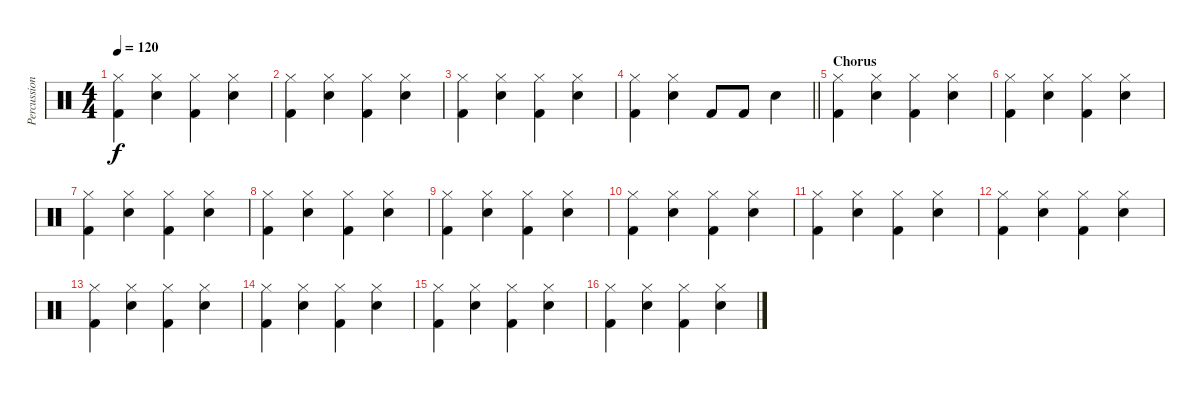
\track ("Percussion" "Percussion") {instrument percussion}
\staff {score}
\articulation defaults
\ts (4 4)
\tempo 120
\clef neutral
\ks c
("Hi-Hat (closed)" "Kick (hit) 2").4{dy f} ("Hi-Hat (closed)" "Electric Snare (hit)").4 ("Hi-Hat (closed)" "Kick (hit) 2").4 ("Hi-Hat (closed)" "Electric Snare (hit)").4 |
("Hi-Hat (closed)" "Kick (hit) 2").4 ("Hi-Hat (closed)" "Electric Snare (hit)").4 ("Hi-Hat (closed)" "Kick (hit) 2").4 ("Hi-Hat (closed)" "Electric Snare (hit)").4 |
("Hi-Hat (closed)" "Kick (hit) 2").4 ("Hi-Hat (closed)" "Electric Snare (hit)").4 ("Hi-Hat (closed)" "Kick (hit) 2").4 ("Hi-Hat (closed)" "Electric Snare (hit)").4 |
\barLineRight lightlight
("Hi-Hat (closed)" "Kick (hit) 2").4 ("Hi-Hat (closed)" "Electric Snare (hit)").4 "Kick (hit) 2".8 "Kick (hit) 2".8 "Electric Snare (hit)".4 |
\section ("" "Chorus")
("Hi-Hat (closed)" "Kick (hit) 2").4 ("Hi-Hat (closed)" "Electric Snare (hit)").4 ("Hi-Hat (closed)" "Kick (hit) 2").4 ("Hi-Hat (closed)" "Electric Snare (hit)").4 |
("Hi-Hat (closed)" "Kick (hit) 2").4 ("Hi-Hat (closed)" "Electric Snare (hit)").4 ("Hi-Hat (closed)" "Kick (hit) 2").4 ("Hi-Hat (closed)" "Electric Snare (hit)").4 |
("Hi-Hat (closed)" "Kick (hit) 2").4 ("Hi-Hat (closed)" "Electric Snare (hit)").4 ("Hi-Hat (closed)" "Kick (hit) 2").4 ("Hi-Hat (closed)" "Electric Snare (hit)").4 |
("Hi-Hat (closed)" "Kick (hit) 2").4 ("Hi-Hat (closed)" "Electric Snare (hit)").4 ("Hi-Hat (closed)" "Kick (hit) 2").4 ("Hi-Hat (closed)" "Electric Snare (hit)").4 |
("Hi-Hat (closed)" "Kick (hit) 2").4 ("Hi-Hat (closed)" "Electric Snare (hit)").4 ("Hi-Hat (closed)" "Kick (hit) 2").4 ("Hi-Hat (closed)" "Electric Snare (hit)").4 |
("Hi-Hat (closed)" "Kick (hit) 2").4 ("Hi-Hat (closed)" "Electric Snare (hit)").4 ("Hi-Hat (closed)" "Kick (hit) 2").4 ("Hi-Hat (closed)" "Electric Snare (hit)").4 |
("Hi-Hat (closed)" "Kick (hit) 2").4 ("Hi-Hat (closed)" "Electric Snare (hit)").4 ("Hi-Hat (closed)" "Kick (hit) 2").4 ("Hi-Hat (closed)" "Electric Snare (hit)").4 |
("Hi-Hat (closed)" "Kick (hit) 2").4 ("Hi-Hat (closed)" "Electric Snare (hit)").4 ("Hi-Hat (closed)" "Kick (hit) 2").4 ("Hi-Hat (closed)" "Electric Snare (hit)").4 |
("Hi-Hat (closed)" "Kick (hit) 2").4 ("Hi-Hat (closed)" "Electric Snare (hit)").4 ("Hi-Hat (closed)" "Kick (hit) 2").4 ("Hi-Hat (closed)" "Electric Snare (hit)").4 |
("Hi-Hat (closed)" "Kick (hit) 2").4 ("Hi-Hat (closed)" "Electric Snare (hit)").4 ("Hi-Hat (closed)" "Kick (hit) 2").4 ("Hi-Hat (closed)" "Electric Snare (hit)").4 |
("Hi-Hat (closed)" "Kick (hit) 2").4 ("Hi-Hat (closed)" "Electric Snare (hit)").4 ("Hi-Hat (closed)" "Kick (hit) 2").4 ("Hi-Hat (closed)" "Electric Snare (hit)").4 |
("Hi-Hat (closed)" "Kick (hit) 2").4 ("Hi-Hat (closed)" "Electric Snare (hit)").4 ("Hi-Hat (closed)" "Kick (hit) 2").4 ("Hi-Hat (closed)" "Electric Snare (hit)").4
